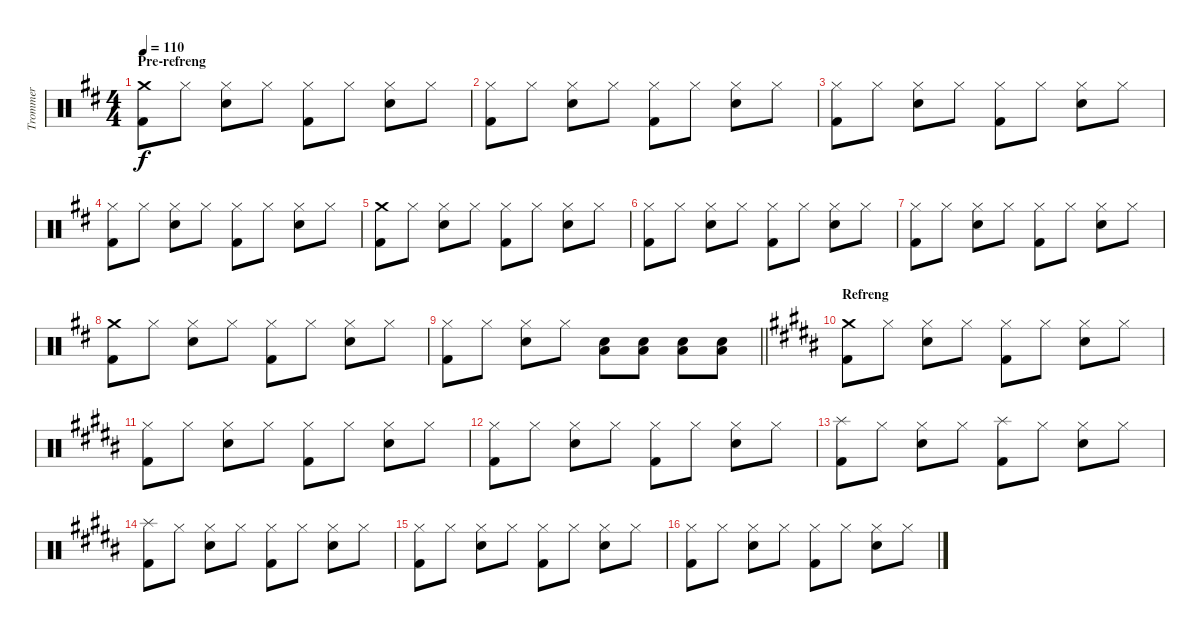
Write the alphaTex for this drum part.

\track ("Trommer" "Trommer") {instrument percussion}
\staff {score}
\articulation defaults
\ts (4 4)
\section ("" "Pre-refreng")
\tempo 110
\clef neutral
\ks d
("Crash medium (hit)" "Kick (hit) 2").8{dy f} "Hi-Hat (closed)".8 ("Hi-Hat (closed)" "Electric Snare (hit)").8 "Hi-Hat (closed)".8 ("Hi-Hat (closed)" "Kick (hit) 2").8 "Hi-Hat (closed)".8 ("Hi-Hat (closed)" "Electric Snare (hit)").8 "Hi-Hat (closed)".8 |
("Hi-Hat (closed)" "Kick (hit) 2").8 "Hi-Hat (closed)".8 ("Hi-Hat (closed)" "Electric Snare (hit)").8 "Hi-Hat (closed)".8 ("Hi-Hat (closed)" "Kick (hit) 2").8 "Hi-Hat (closed)".8 ("Hi-Hat (closed)" "Electric Snare (hit)").8 "Hi-Hat (closed)".8 |
("Hi-Hat (closed)" "Kick (hit) 2").8 "Hi-Hat (closed)".8 ("Hi-Hat (closed)" "Electric Snare (hit)").8 "Hi-Hat (closed)".8 ("Hi-Hat (closed)" "Kick (hit) 2").8 "Hi-Hat (closed)".8 ("Hi-Hat (closed)" "Electric Snare (hit)").8 "Hi-Hat (closed)".8 |
("Hi-Hat (closed)" "Kick (hit) 2").8 "Hi-Hat (closed)".8 ("Hi-Hat (closed)" "Electric Snare (hit)").8 "Hi-Hat (closed)".8 ("Hi-Hat (closed)" "Kick (hit) 2").8 "Hi-Hat (closed)".8 ("Hi-Hat (closed)" "Electric Snare (hit)").8 "Hi-Hat (closed)".8 |
("Crash medium (hit)" "Kick (hit) 2").8 "Hi-Hat (closed)".8 ("Hi-Hat (closed)" "Electric Snare (hit)").8 "Hi-Hat (closed)".8 ("Hi-Hat (closed)" "Kick (hit) 2").8 "Hi-Hat (closed)".8 ("Hi-Hat (closed)" "Electric Snare (hit)").8 "Hi-Hat (closed)".8 |
("Hi-Hat (closed)" "Kick (hit) 2").8 "Hi-Hat (closed)".8 ("Hi-Hat (closed)" "Electric Snare (hit)").8 "Hi-Hat (closed)".8 ("Hi-Hat (closed)" "Kick (hit) 2").8 "Hi-Hat (closed)".8 ("Hi-Hat (closed)" "Electric Snare (hit)").8 "Hi-Hat (closed)".8 |
("Hi-Hat (closed)" "Kick (hit) 2").8 "Hi-Hat (closed)".8 ("Hi-Hat (closed)" "Electric Snare (hit)").8 "Hi-Hat (closed)".8 ("Hi-Hat (closed)" "Kick (hit) 2").8 "Hi-Hat (closed)".8 ("Hi-Hat (closed)" "Electric Snare (hit)").8 "Hi-Hat (closed)".8 |
("Crash medium (hit)" "Kick (hit) 2").8 "Hi-Hat (closed)".8 ("Hi-Hat (closed)" "Electric Snare (hit)").8 "Hi-Hat (closed)".8 ("Hi-Hat (closed)" "Kick (hit) 2").8 "Hi-Hat (closed)".8 ("Hi-Hat (closed)" "Electric Snare (hit)").8 "Hi-Hat (closed)".8 |
\barLineRight lightlight
("Hi-Hat (closed)" "Kick (hit) 2").8 "Hi-Hat (closed)".8 ("Hi-Hat (closed)" "Electric Snare (hit)").8 "Hi-Hat (closed)".8 ("Electric Snare (hit)" "Low Tom (hit)").8 ("Electric Snare (hit)" "Low Tom (hit)").8 ("Electric Snare (hit)" "Low Tom (hit)").8 ("Electric Snare (hit)" "Low Tom (hit)").8 |
\section ("" "Refreng")
\ks b
("Crash medium (hit)" "Kick (hit) 2").8 "Hi-Hat (closed)".8 ("Hi-Hat (closed)" "Electric Snare (hit)").8 "Hi-Hat (closed)".8 ("Hi-Hat (closed)" "Kick (hit) 2").8 "Hi-Hat (closed)".8 ("Hi-Hat (closed)" "Electric Snare (hit)").8 "Hi-Hat (closed)".8 |
("Hi-Hat (closed)" "Kick (hit) 2").8 "Hi-Hat (closed)".8 ("Hi-Hat (closed)" "Electric Snare (hit)").8 "Hi-Hat (closed)".8 ("Hi-Hat (closed)" "Kick (hit) 2").8 "Hi-Hat (closed)".8 ("Hi-Hat (closed)" "Electric Snare (hit)").8 "Hi-Hat (closed)".8 |
("Hi-Hat (closed)" "Kick (hit) 2").8 "Hi-Hat (closed)".8 ("Hi-Hat (closed)" "Electric Snare (hit)").8 "Hi-Hat (closed)".8 ("Hi-Hat (closed)" "Kick (hit) 2").8 "Hi-Hat (closed)".8 ("Hi-Hat (closed)" "Electric Snare (hit)").8 "Hi-Hat (closed)".8 |
("Splash (hit)" "Kick (hit) 2").8 "Hi-Hat (closed)".8 ("Hi-Hat (closed)" "Electric Snare (hit)").8 "Hi-Hat (closed)".8 ("Splash (hit)" "Kick (hit) 2").8 "Hi-Hat (closed)".8 ("Hi-Hat (closed)" "Electric Snare (hit)").8 "Hi-Hat (closed)".8 |
("Splash (hit)" "Kick (hit) 2").8 "Hi-Hat (closed)".8 ("Hi-Hat (closed)" "Electric Snare (hit)").8 "Hi-Hat (closed)".8 ("Hi-Hat (closed)" "Kick (hit) 2").8 "Hi-Hat (closed)".8 ("Hi-Hat (closed)" "Electric Snare (hit)").8 "Hi-Hat (closed)".8 |
("Hi-Hat (closed)" "Kick (hit) 2").8 "Hi-Hat (closed)".8 ("Hi-Hat (closed)" "Electric Snare (hit)").8 "Hi-Hat (closed)".8 ("Hi-Hat (closed)" "Kick (hit) 2").8 "Hi-Hat (closed)".8 ("Hi-Hat (closed)" "Electric Snare (hit)").8 "Hi-Hat (closed)".8 |
("Hi-Hat (closed)" "Kick (hit) 2").8 "Hi-Hat (closed)".8 ("Hi-Hat (closed)" "Electric Snare (hit)").8 "Hi-Hat (closed)".8 ("Hi-Hat (closed)" "Kick (hit) 2").8 "Hi-Hat (closed)".8 ("Hi-Hat (closed)" "Electric Snare (hit)").8 "Hi-Hat (closed)".8
